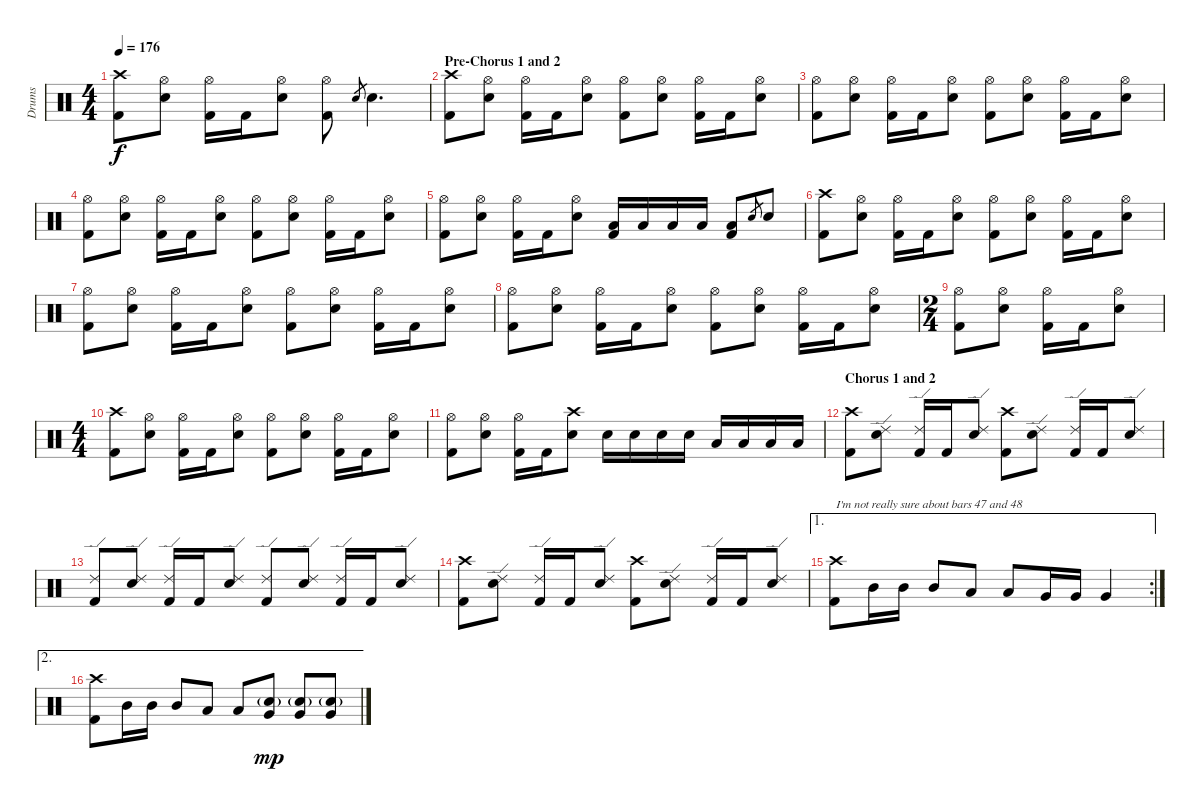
\track ("Drums" "Drums") {instrument percussion}
\staff {score}
\articulation defaults
\ts (4 4)
\tempo 176
\clef neutral
\ks c
("Crash high (hit)" "Kick (hit) 2").8{dy f} ("Hi-Hat (open)" "Electric Snare (hit)").8 ("Hi-Hat (open)" "Kick (hit) 2").16 "Kick (hit) 2".16 ("Hi-Hat (open)" "Electric Snare (hit)").8 ("Hi-Hat (open)" "Kick (hit) 2").8 "Electric Snare (hit)".8{gr} "Electric Snare (hit)".4{d} |
\section ("" "Pre-Chorus 1 and 2")
("Crash high (hit)" "Kick (hit) 2").8 ("Hi-Hat (open)" "Electric Snare (hit)").8 ("Hi-Hat (open)" "Kick (hit) 2").16 "Kick (hit) 2".16 ("Hi-Hat (open)" "Electric Snare (hit)").8 ("Hi-Hat (open)" "Kick (hit) 2").8 ("Hi-Hat (open)" "Electric Snare (hit)").8 ("Hi-Hat (open)" "Kick (hit) 2").16 "Kick (hit) 2".16 ("Hi-Hat (open)" "Electric Snare (hit)").8 |
("Hi-Hat (open)" "Kick (hit) 2").8 ("Hi-Hat (open)" "Electric Snare (hit)").8 ("Hi-Hat (open)" "Kick (hit) 2").16 "Kick (hit) 2".16 ("Hi-Hat (open)" "Electric Snare (hit)").8 ("Hi-Hat (open)" "Kick (hit) 2").8 ("Hi-Hat (open)" "Electric Snare (hit)").8 ("Hi-Hat (open)" "Kick (hit) 2").16 "Kick (hit) 2".16 ("Hi-Hat (open)" "Electric Snare (hit)").8 |
("Hi-Hat (open)" "Kick (hit) 2").8 ("Hi-Hat (open)" "Electric Snare (hit)").8 ("Hi-Hat (open)" "Kick (hit) 2").16 "Kick (hit) 2".16 ("Hi-Hat (open)" "Electric Snare (hit)").8 ("Hi-Hat (open)" "Kick (hit) 2").8 ("Hi-Hat (open)" "Electric Snare (hit)").8 ("Hi-Hat (open)" "Kick (hit) 2").16 "Kick (hit) 2".16 ("Hi-Hat (open)" "Electric Snare (hit)").8 |
("Hi-Hat (open)" "Kick (hit) 2").8 ("Hi-Hat (open)" "Electric Snare (hit)").8 ("Hi-Hat (open)" "Kick (hit) 2").16 "Kick (hit) 2".16 ("Hi-Hat (open)" "Electric Snare (hit)").8 ("Low Tom (hit)" "Kick (hit) 2").16 "Low Tom (hit)".16 "Low Tom (hit)".16 "Low Tom (hit)".16 ("Low Tom (hit)" "Kick (hit) 2").8 "Electric Snare (hit)".8{gr} "Electric Snare (hit)".8 |
("Crash high (hit)" "Kick (hit) 2").8 ("Hi-Hat (open)" "Electric Snare (hit)").8 ("Hi-Hat (open)" "Kick (hit) 2").16 "Kick (hit) 2".16 ("Hi-Hat (open)" "Electric Snare (hit)").8 ("Hi-Hat (open)" "Kick (hit) 2").8 ("Hi-Hat (open)" "Electric Snare (hit)").8 ("Hi-Hat (open)" "Kick (hit) 2").16 "Kick (hit) 2".16 ("Hi-Hat (open)" "Electric Snare (hit)").8 |
("Hi-Hat (open)" "Kick (hit) 2").8 ("Hi-Hat (open)" "Electric Snare (hit)").8 ("Hi-Hat (open)" "Kick (hit) 2").16 "Kick (hit) 2".16 ("Hi-Hat (open)" "Electric Snare (hit)").8 ("Hi-Hat (open)" "Kick (hit) 2").8 ("Hi-Hat (open)" "Electric Snare (hit)").8 ("Hi-Hat (open)" "Kick (hit) 2").16 "Kick (hit) 2".16 ("Hi-Hat (open)" "Electric Snare (hit)").8 |
("Hi-Hat (open)" "Kick (hit) 2").8 ("Hi-Hat (open)" "Electric Snare (hit)").8 ("Hi-Hat (open)" "Kick (hit) 2").16 "Kick (hit) 2".16 ("Hi-Hat (open)" "Electric Snare (hit)").8 ("Hi-Hat (open)" "Kick (hit) 2").8 ("Hi-Hat (open)" "Electric Snare (hit)").8 ("Hi-Hat (open)" "Kick (hit) 2").16 "Kick (hit) 2".16 ("Hi-Hat (open)" "Electric Snare (hit)").8 |
\ts (2 4)
("Hi-Hat (open)" "Kick (hit) 2").8 ("Hi-Hat (open)" "Electric Snare (hit)").8 ("Hi-Hat (open)" "Kick (hit) 2").16 "Kick (hit) 2".16 ("Hi-Hat (open)" "Electric Snare (hit)").8 |
\ts (4 4)
("Crash high (hit)" "Kick (hit) 2").8 ("Hi-Hat (open)" "Electric Snare (hit)").8 ("Hi-Hat (open)" "Kick (hit) 2").16 "Kick (hit) 2".16 ("Hi-Hat (open)" "Electric Snare (hit)").8 ("Hi-Hat (open)" "Kick (hit) 2").8 ("Hi-Hat (open)" "Electric Snare (hit)").8 ("Hi-Hat (open)" "Kick (hit) 2").16 "Kick (hit) 2".16 ("Hi-Hat (open)" "Electric Snare (hit)").8 |
("Hi-Hat (open)" "Kick (hit) 2").8 ("Hi-Hat (open)" "Electric Snare (hit)").8 ("Hi-Hat (open)" "Kick (hit) 2").16 "Kick (hit) 2".16 ("Crash high (hit)" "Electric Snare (hit)").8 "Electric Snare (hit)".16 "Electric Snare (hit)".16 "Electric Snare (hit)".16 "Electric Snare (hit)".16 "Low Tom (hit)".16 "Low Tom (hit)".16 "Low Tom (hit)".16 "Low Tom (hit)".16 |
\section ("" "Chorus 1 and 2")
("Crash high (hit)" "Kick (hit) 2").8 ("Ride (edge) 2" "Electric Snare (hit)").8 ("Ride (edge) 2" "Kick (hit) 2").16 "Kick (hit) 2".16 ("Ride (edge) 2" "Electric Snare (hit)").8 ("Crash high (hit)" "Kick (hit) 2").8 ("Ride (edge) 2" "Electric Snare (hit)").8 ("Ride (edge) 2" "Kick (hit) 2").16 "Kick (hit) 2".16 ("Ride (edge) 2" "Electric Snare (hit)").8 |
("Ride (edge) 2" "Kick (hit) 2").8 ("Ride (edge) 2" "Electric Snare (hit)").8 ("Ride (edge) 2" "Kick (hit) 2").16 "Kick (hit) 2".16 ("Ride (edge) 2" "Electric Snare (hit)").8 ("Ride (edge) 2" "Kick (hit) 2").8 ("Ride (edge) 2" "Electric Snare (hit)").8 ("Ride (edge) 2" "Kick (hit) 2").16 "Kick (hit) 2".16 ("Ride (edge) 2" "Electric Snare (hit)").8 |
("Crash high (hit)" "Kick (hit) 2").8 ("Ride (edge) 2" "Electric Snare (hit)").8 ("Ride (edge) 2" "Kick (hit) 2").16 "Kick (hit) 2".16 ("Ride (edge) 2" "Electric Snare (hit)").8 ("Crash high (hit)" "Kick (hit) 2").8 ("Ride (edge) 2" "Electric Snare (hit)").8 ("Ride (edge) 2" "Kick (hit) 2").16 "Kick (hit) 2".16 ("Ride (edge) 2" "Electric Snare (hit)").8 |
\ae 1
\rc 2
("Crash high (hit)" "Kick (hit) 2").8{txt "I'm not really sure about bars 47 and 48"} "Mid Tom (hit)".16 "Mid Tom (hit)".16 "Mid Tom (hit)".8 "Low Tom (hit)".8 "Low Tom (hit)".8 "Very Low Tom (hit)".16 "Very Low Tom (hit)".16 "Very Low Tom (hit)".4 |
\ae 2
("Crash high (hit)" "Kick (hit) 2").8 "Mid Tom (hit)".16 "Mid Tom (hit)".16 "Mid Tom (hit)".8 "Low Tom (hit)".8 "Low Tom (hit)".8 ("Electric Snare (hit)"{g} "Very Low Tom (hit)").8{dy mp} ("Electric Snare (hit)"{g} "Very Low Tom (hit)").8 ("Electric Snare (hit)"{g} "Very Low Tom (hit)").8
